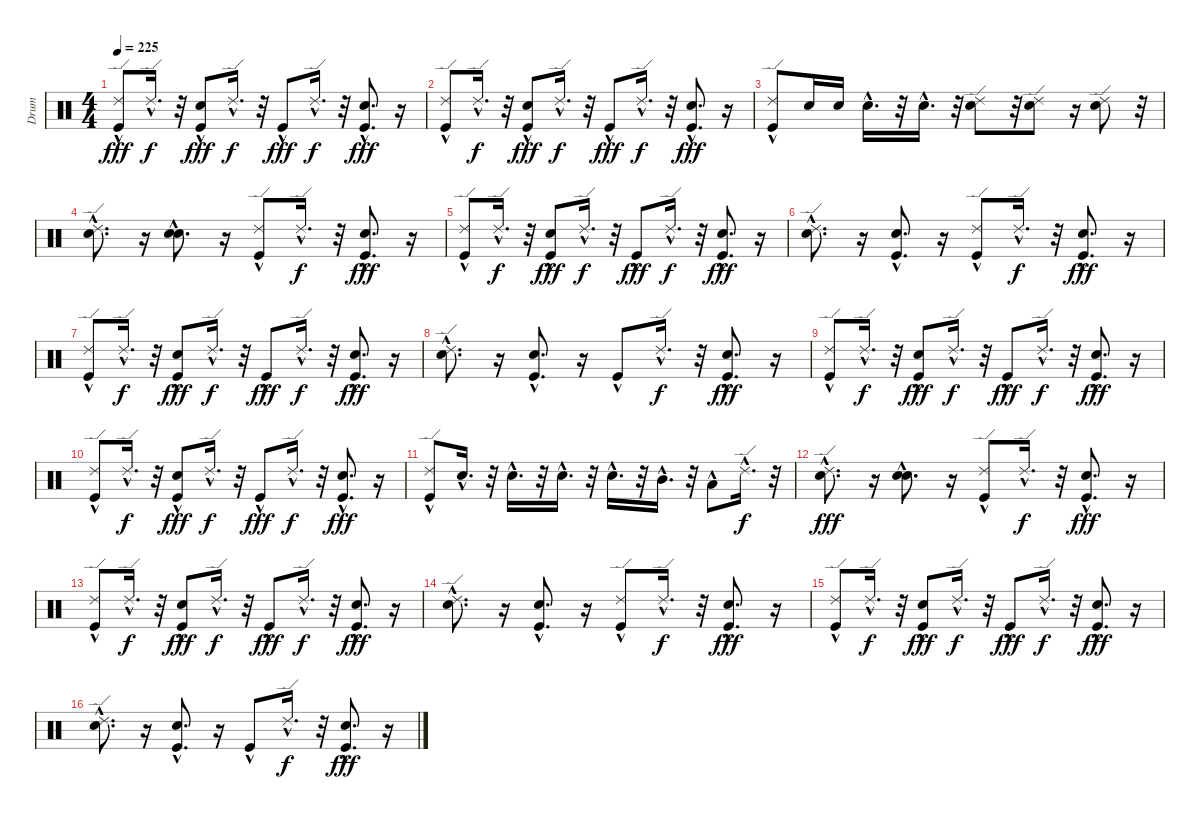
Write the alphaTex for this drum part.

\track ("Drum" "Drum") {instrument percussion}
\staff {score}
\articulation defaults
\ts (4 4)
\tempo 225
\clef neutral
\ks c
("Kick (hit)"{hac} "Ride (edge) 2"{hac}).8{dy fff} "Ride (edge) 2"{hac}.16{d dy f} r.32 ("Kick (hit)"{hac} "Electric Snare (hit)"{hac}).8{dy fff} "Ride (edge) 2"{hac}.16{d dy f} r.32 "Kick (hit)"{hac}.8{dy fff} "Ride (edge) 2"{hac}.16{d dy f} r.32 ("Kick (hit)"{hac} "Electric Snare (hit)"{hac}).8{d dy fff} r.16 |
("Kick (hit)"{hac} "Ride (edge) 2"{hac}).8 "Ride (edge) 2"{hac}.16{d dy f} r.32 ("Kick (hit)"{hac} "Electric Snare (hit)"{hac}).8{dy fff} "Ride (edge) 2"{hac}.16{d dy f} r.32 "Kick (hit)"{hac}.8{dy fff} "Ride (edge) 2"{hac}.16{d dy f} r.32 ("Kick (hit)"{hac} "Electric Snare (hit)"{hac}).8{d dy fff} r.16 |
("Kick (hit)"{hac} "Ride (edge) 2"{hac}).8 "Electric Snare (hit)".16 "Electric Snare (hit)".16 "Electric Snare (hit)"{hac}.16{d} r.32 "Electric Snare (hit)"{hac}.16{d} r.32 ("Snare (hit) 2" "Ride (edge) 2").8 r.32 ("Snare (hit) 2" "Ride (edge) 2").8 r.16 ("Snare (hit) 2" "Ride (edge) 2").8 r.32 |
("Snare (hit) 2"{hac} "Ride (edge) 2"{hac}).8{d} r.16 ("Snare (hit) 2"{hac} "Electric Snare (hit)"{hac}).8{d} r.16 ("Kick (hit)"{hac} "Ride (edge) 2"{hac}).8 "Ride (edge) 2"{hac}.16{d dy f} r.32 ("Kick (hit)"{hac} "Electric Snare (hit)"{hac}).8{d dy fff} r.16 |
("Kick (hit)"{hac} "Ride (edge) 2"{hac}).8 "Ride (edge) 2"{hac}.16{d dy f} r.32 ("Kick (hit)"{hac} "Electric Snare (hit)"{hac}).8{dy fff} "Ride (edge) 2"{hac}.16{d dy f} r.32 "Kick (hit)"{hac}.8{dy fff} "Ride (edge) 2"{hac}.16{d dy f} r.32 ("Kick (hit)"{hac} "Electric Snare (hit)"{hac}).8{d dy fff} r.16 |
("Snare (hit) 2"{hac} "Ride (edge) 2"{hac}).8{d} r.16 ("Kick (hit)"{hac} "Electric Snare (hit)"{hac}).8{d} r.16 ("Kick (hit)"{hac} "Ride (edge) 2"{hac}).8 "Ride (edge) 2"{hac}.16{d dy f} r.32 ("Kick (hit)"{hac} "Electric Snare (hit)"{hac}).8{d dy fff} r.16 |
("Kick (hit)"{hac} "Ride (edge) 2"{hac}).8 "Ride (edge) 2"{hac}.16{d dy f} r.32 ("Kick (hit)"{hac} "Electric Snare (hit)"{hac}).8{dy fff} "Ride (edge) 2"{hac}.16{d dy f} r.32 "Kick (hit)"{hac}.8{dy fff} "Ride (edge) 2"{hac}.16{d dy f} r.32 ("Kick (hit)"{hac} "Electric Snare (hit)"{hac}).8{d dy fff} r.16 |
("Snare (hit) 2"{hac} "Ride (edge) 2"{hac}).8{d} r.16 ("Kick (hit)"{hac} "Electric Snare (hit)"{hac}).8{d} r.16 "Kick (hit)"{hac}.8 "Ride (edge) 2"{hac}.16{d dy f} r.32 ("Kick (hit)"{hac} "Electric Snare (hit)"{hac}).8{d dy fff} r.16 |
("Kick (hit)"{hac} "Ride (edge) 2"{hac}).8 "Ride (edge) 2"{hac}.16{d dy f} r.32 ("Kick (hit)"{hac} "Electric Snare (hit)"{hac}).8{dy fff} "Ride (edge) 2"{hac}.16{d dy f} r.32 "Kick (hit)"{hac}.8{dy fff} "Ride (edge) 2"{hac}.16{d dy f} r.32 ("Kick (hit)"{hac} "Electric Snare (hit)"{hac}).8{d dy fff} r.16 |
("Kick (hit)"{hac} "Ride (edge) 2"{hac}).8 "Ride (edge) 2"{hac}.16{d dy f} r.32 ("Kick (hit)"{hac} "Electric Snare (hit)"{hac}).8{dy fff} "Ride (edge) 2"{hac}.16{d dy f} r.32 "Kick (hit)"{hac}.8{dy fff} "Ride (edge) 2"{hac}.16{d dy f} r.32 ("Kick (hit)"{hac} "Electric Snare (hit)"{hac}).8{d dy fff} r.16 |
("Kick (hit)"{hac} "Ride (edge) 2"{hac}).8 "Electric Snare (hit)"{hac}.16{d} r.32 "Electric Snare (hit)"{hac}.16{d} r.32 "Electric Snare (hit)"{hac}.16{d} r.32 "Electric Snare (hit)"{hac}.16{d} r.32 "Mid Tom (hit)"{hac}.16{d} r.32 "Low Tom (hit)"{hac}.8 "Ride (edge) 2"{hac}.16{d dy f} r.32 |
("Snare (hit) 2"{hac} "Ride (edge) 2"{hac}).8{d dy fff} r.16 ("Snare (hit) 2"{hac} "Electric Snare (hit)"{hac}).8{d} r.16 ("Kick (hit)"{hac} "Ride (edge) 2"{hac}).8 "Ride (edge) 2"{hac}.16{d dy f} r.32 ("Kick (hit)"{hac} "Electric Snare (hit)"{hac}).8{d dy fff} r.16 |
("Kick (hit)"{hac} "Ride (edge) 2"{hac}).8 "Ride (edge) 2"{hac}.16{d dy f} r.32 ("Kick (hit)"{hac} "Electric Snare (hit)"{hac}).8{dy fff} "Ride (edge) 2"{hac}.16{d dy f} r.32 "Kick (hit)"{hac}.8{dy fff} "Ride (edge) 2"{hac}.16{d dy f} r.32 ("Kick (hit)"{hac} "Electric Snare (hit)"{hac}).8{d dy fff} r.16 |
("Snare (hit) 2"{hac} "Ride (edge) 2"{hac}).8{d} r.16 ("Kick (hit)"{hac} "Electric Snare (hit)"{hac}).8{d} r.16 ("Kick (hit)"{hac} "Ride (edge) 2"{hac}).8 "Ride (edge) 2"{hac}.16{d dy f} r.32 ("Kick (hit)"{hac} "Electric Snare (hit)"{hac}).8{d dy fff} r.16 |
("Kick (hit)"{hac} "Ride (edge) 2"{hac}).8 "Ride (edge) 2"{hac}.16{d dy f} r.32 ("Kick (hit)"{hac} "Electric Snare (hit)"{hac}).8{dy fff} "Ride (edge) 2"{hac}.16{d dy f} r.32 "Kick (hit)"{hac}.8{dy fff} "Ride (edge) 2"{hac}.16{d dy f} r.32 ("Kick (hit)"{hac} "Electric Snare (hit)"{hac}).8{d dy fff} r.16 |
("Snare (hit) 2"{hac} "Ride (edge) 2"{hac}).8{d} r.16 ("Kick (hit)"{hac} "Electric Snare (hit)"{hac}).8{d} r.16 "Kick (hit)"{hac}.8 "Ride (edge) 2"{hac}.16{d dy f} r.32 ("Kick (hit)"{hac} "Electric Snare (hit)"{hac}).8{d dy fff} r.16
